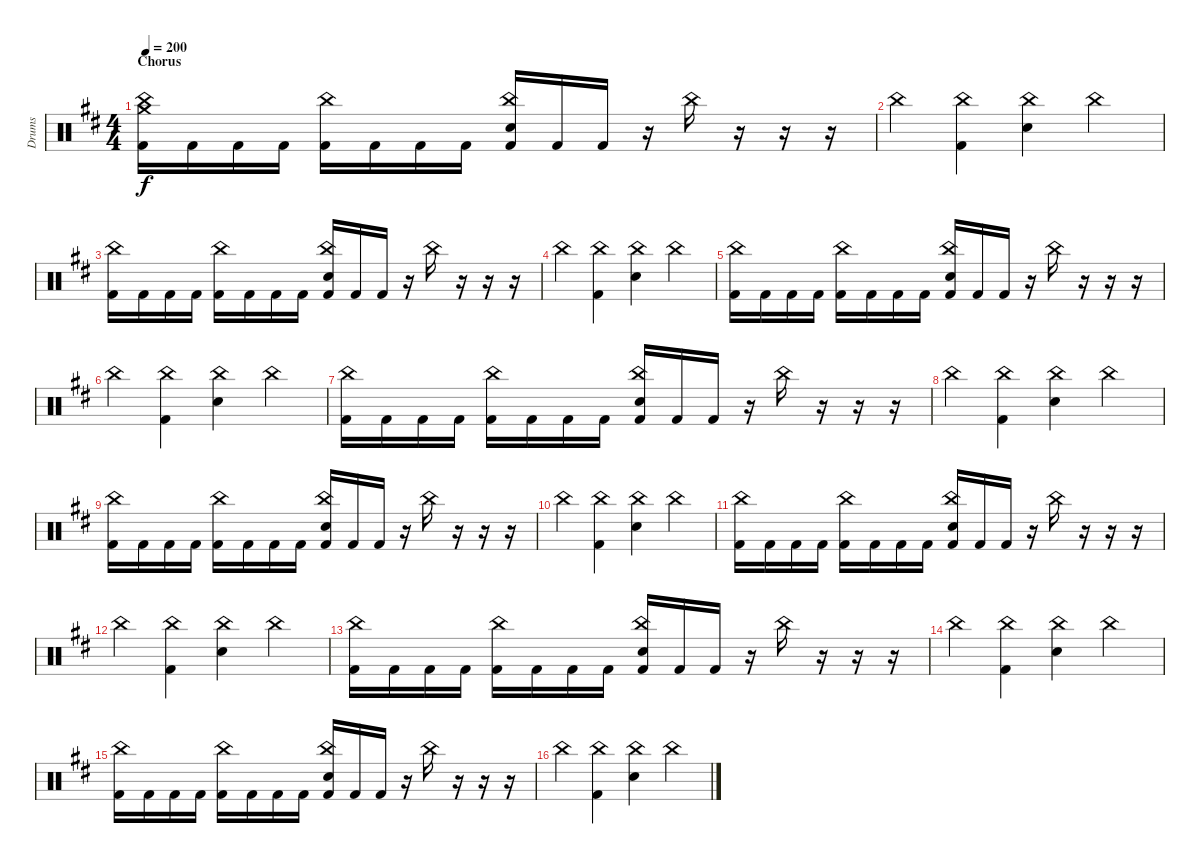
\track ("Drums" "Drums") {instrument percussion}
\staff {score}
\articulation defaults
\ts (4 4)
\section ("" "Chorus")
\tempo 200
\clef neutral
\ks bminor
("Kick (hit) 2" "Crash medium (hit)" "China (hit)").16{dy f} "Kick (hit) 2".16 "Kick (hit) 2".16 "Kick (hit) 2".16 ("Kick (hit) 2" "China (hit)").16 "Kick (hit) 2".16 "Kick (hit) 2".16 "Kick (hit) 2".16 ("Kick (hit) 2" "Electric Snare (hit)" "China (hit)").16 "Kick (hit) 2".16 "Kick (hit) 2".16 r.16 "China (hit)".16 r.16 r.16 r.16 |
"China (hit)".4 ("Kick (hit) 2" "China (hit)").4 ("Electric Snare (hit)" "China (hit)").4 "China (hit)".4 |
("Kick (hit) 2" "China (hit)").16 "Kick (hit) 2".16 "Kick (hit) 2".16 "Kick (hit) 2".16 ("Kick (hit) 2" "China (hit)").16 "Kick (hit) 2".16 "Kick (hit) 2".16 "Kick (hit) 2".16 ("Kick (hit) 2" "Electric Snare (hit)" "China (hit)").16 "Kick (hit) 2".16 "Kick (hit) 2".16 r.16 "China (hit)".16 r.16 r.16 r.16 |
"China (hit)".4 ("Kick (hit) 2" "China (hit)").4 ("Electric Snare (hit)" "China (hit)").4 "China (hit)".4 |
("Kick (hit) 2" "China (hit)").16 "Kick (hit) 2".16 "Kick (hit) 2".16 "Kick (hit) 2".16 ("Kick (hit) 2" "China (hit)").16 "Kick (hit) 2".16 "Kick (hit) 2".16 "Kick (hit) 2".16 ("Kick (hit) 2" "Electric Snare (hit)" "China (hit)").16 "Kick (hit) 2".16 "Kick (hit) 2".16 r.16 "China (hit)".16 r.16 r.16 r.16 |
"China (hit)".4 ("Kick (hit) 2" "China (hit)").4 ("Electric Snare (hit)" "China (hit)").4 "China (hit)".4 |
("Kick (hit) 2" "China (hit)").16 "Kick (hit) 2".16 "Kick (hit) 2".16 "Kick (hit) 2".16 ("Kick (hit) 2" "China (hit)").16 "Kick (hit) 2".16 "Kick (hit) 2".16 "Kick (hit) 2".16 ("Kick (hit) 2" "Electric Snare (hit)" "China (hit)").16 "Kick (hit) 2".16 "Kick (hit) 2".16 r.16 "China (hit)".16 r.16 r.16 r.16 |
"China (hit)".4 ("Kick (hit) 2" "China (hit)").4 ("Electric Snare (hit)" "China (hit)").4 "China (hit)".4 |
("Kick (hit) 2" "China (hit)").16 "Kick (hit) 2".16 "Kick (hit) 2".16 "Kick (hit) 2".16 ("Kick (hit) 2" "China (hit)").16 "Kick (hit) 2".16 "Kick (hit) 2".16 "Kick (hit) 2".16 ("Kick (hit) 2" "Electric Snare (hit)" "China (hit)").16 "Kick (hit) 2".16 "Kick (hit) 2".16 r.16 "China (hit)".16 r.16 r.16 r.16 |
"China (hit)".4 ("Kick (hit) 2" "China (hit)").4 ("Electric Snare (hit)" "China (hit)").4 "China (hit)".4 |
("Kick (hit) 2" "China (hit)").16 "Kick (hit) 2".16 "Kick (hit) 2".16 "Kick (hit) 2".16 ("Kick (hit) 2" "China (hit)").16 "Kick (hit) 2".16 "Kick (hit) 2".16 "Kick (hit) 2".16 ("Kick (hit) 2" "Electric Snare (hit)" "China (hit)").16 "Kick (hit) 2".16 "Kick (hit) 2".16 r.16 "China (hit)".16 r.16 r.16 r.16 |
"China (hit)".4 ("Kick (hit) 2" "China (hit)").4 ("Electric Snare (hit)" "China (hit)").4 "China (hit)".4 |
("Kick (hit) 2" "China (hit)").16 "Kick (hit) 2".16 "Kick (hit) 2".16 "Kick (hit) 2".16 ("Kick (hit) 2" "China (hit)").16 "Kick (hit) 2".16 "Kick (hit) 2".16 "Kick (hit) 2".16 ("Kick (hit) 2" "Electric Snare (hit)" "China (hit)").16 "Kick (hit) 2".16 "Kick (hit) 2".16 r.16 "China (hit)".16 r.16 r.16 r.16 |
"China (hit)".4 ("Kick (hit) 2" "China (hit)").4 ("Electric Snare (hit)" "China (hit)").4 "China (hit)".4 |
("Kick (hit) 2" "China (hit)").16 "Kick (hit) 2".16 "Kick (hit) 2".16 "Kick (hit) 2".16 ("Kick (hit) 2" "China (hit)").16 "Kick (hit) 2".16 "Kick (hit) 2".16 "Kick (hit) 2".16 ("Kick (hit) 2" "Electric Snare (hit)" "China (hit)").16 "Kick (hit) 2".16 "Kick (hit) 2".16 r.16 "China (hit)".16 r.16 r.16 r.16 |
"China (hit)".4 ("Kick (hit) 2" "China (hit)").4 ("Electric Snare (hit)" "China (hit)").4 "China (hit)".4
